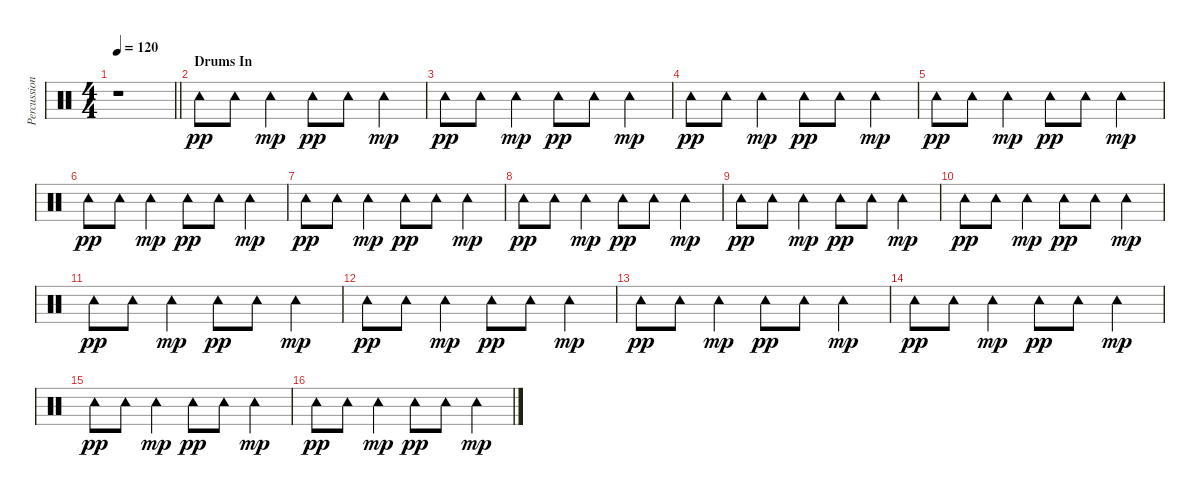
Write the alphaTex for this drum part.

\track ("Percussion" "Percussion") {instrument percussion}
\staff {score}
\articulation defaults
\ts (4 4)
\tempo 120
\clef neutral
\barLineRight lightlight
\ks c
r.1{dy pp volume 0 balance 1} |
\section ("" "Drums In")
"Tambourine (hit)".8{volume 11} "Tambourine (hit)".8 "Tambourine (hit)".4{dy mp} "Tambourine (hit)".8{dy pp} "Tambourine (hit)".8 "Tambourine (hit)".4{dy mp} |
"Tambourine (hit)".8{dy pp} "Tambourine (hit)".8 "Tambourine (hit)".4{dy mp} "Tambourine (hit)".8{dy pp} "Tambourine (hit)".8 "Tambourine (hit)".4{dy mp} |
"Tambourine (hit)".8{dy pp} "Tambourine (hit)".8 "Tambourine (hit)".4{dy mp} "Tambourine (hit)".8{dy pp} "Tambourine (hit)".8 "Tambourine (hit)".4{dy mp} |
"Tambourine (hit)".8{dy pp} "Tambourine (hit)".8 "Tambourine (hit)".4{dy mp} "Tambourine (hit)".8{dy pp} "Tambourine (hit)".8 "Tambourine (hit)".4{dy mp} |
"Tambourine (hit)".8{dy pp} "Tambourine (hit)".8 "Tambourine (hit)".4{dy mp} "Tambourine (hit)".8{dy pp} "Tambourine (hit)".8 "Tambourine (hit)".4{dy mp} |
"Tambourine (hit)".8{dy pp} "Tambourine (hit)".8 "Tambourine (hit)".4{dy mp} "Tambourine (hit)".8{dy pp} "Tambourine (hit)".8 "Tambourine (hit)".4{dy mp} |
"Tambourine (hit)".8{dy pp} "Tambourine (hit)".8 "Tambourine (hit)".4{dy mp} "Tambourine (hit)".8{dy pp} "Tambourine (hit)".8 "Tambourine (hit)".4{dy mp} |
"Tambourine (hit)".8{dy pp} "Tambourine (hit)".8 "Tambourine (hit)".4{dy mp} "Tambourine (hit)".8{dy pp} "Tambourine (hit)".8 "Tambourine (hit)".4{dy mp} |
"Tambourine (hit)".8{dy pp} "Tambourine (hit)".8 "Tambourine (hit)".4{dy mp} "Tambourine (hit)".8{dy pp} "Tambourine (hit)".8 "Tambourine (hit)".4{dy mp} |
"Tambourine (hit)".8{dy pp} "Tambourine (hit)".8 "Tambourine (hit)".4{dy mp} "Tambourine (hit)".8{dy pp} "Tambourine (hit)".8 "Tambourine (hit)".4{dy mp} |
"Tambourine (hit)".8{dy pp} "Tambourine (hit)".8 "Tambourine (hit)".4{dy mp} "Tambourine (hit)".8{dy pp} "Tambourine (hit)".8 "Tambourine (hit)".4{dy mp} |
"Tambourine (hit)".8{dy pp} "Tambourine (hit)".8 "Tambourine (hit)".4{dy mp} "Tambourine (hit)".8{dy pp} "Tambourine (hit)".8 "Tambourine (hit)".4{dy mp} |
"Tambourine (hit)".8{dy pp} "Tambourine (hit)".8 "Tambourine (hit)".4{dy mp} "Tambourine (hit)".8{dy pp} "Tambourine (hit)".8 "Tambourine (hit)".4{dy mp} |
"Tambourine (hit)".8{dy pp} "Tambourine (hit)".8 "Tambourine (hit)".4{dy mp} "Tambourine (hit)".8{dy pp} "Tambourine (hit)".8 "Tambourine (hit)".4{dy mp} |
"Tambourine (hit)".8{dy pp} "Tambourine (hit)".8 "Tambourine (hit)".4{dy mp} "Tambourine (hit)".8{dy pp} "Tambourine (hit)".8 "Tambourine (hit)".4{dy mp}
